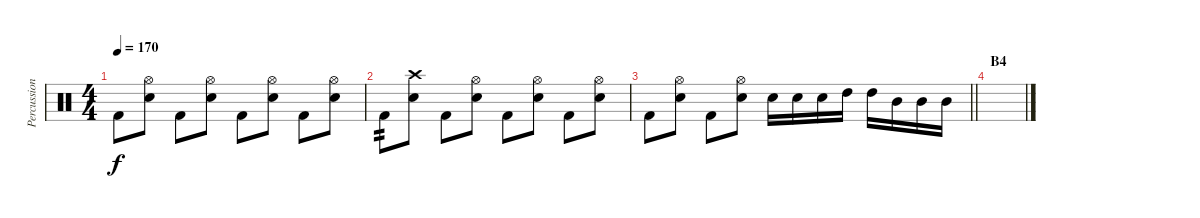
\track ("Percussion" "Percussion") {instrument percussion}
\staff {score}
\articulation defaults
\ts (4 4)
\tempo 170
\clef neutral
\ks c "Kick (hit) 2".8{dy f}
("Hi-Hat (open)" "Electric Snare (hit)").8 "Kick (hit) 2".8 ("Hi-Hat (open)" "Electric Snare (hit)").8 "Kick (hit) 2".8 ("Hi-Hat (open)" "Electric Snare (hit)").8 "Kick (hit) 2".8 ("Hi-Hat (open)" "Electric Snare (hit)").8 |
"Kick (hit) 2".8{tp 2} ("Crash high (hit)" "Electric Snare (hit)").8 "Kick (hit) 2".8 ("Hi-Hat (open)" "Electric Snare (hit)").8 "Kick (hit) 2".8 ("Hi-Hat (open)" "Electric Snare (hit)").8 "Kick (hit) 2".8 ("Hi-Hat (open)" "Electric Snare (hit)").8 |
\barLineRight lightlight "Kick (hit) 2".8
("Hi-Hat (open)" "Electric Snare (hit)").8 "Kick (hit) 2".8 ("Hi-Hat (open)" "Electric Snare (hit)").8 "Electric Snare (hit)".16 "Electric Snare (hit)".16 "Electric Snare (hit)".16 "High Tom (hit)".16 "High Tom (hit)".16 "Mid Tom (hit)".16 "Mid Tom (hit)".16 "Mid Tom (hit)".16 |
\section ("" "B4")
